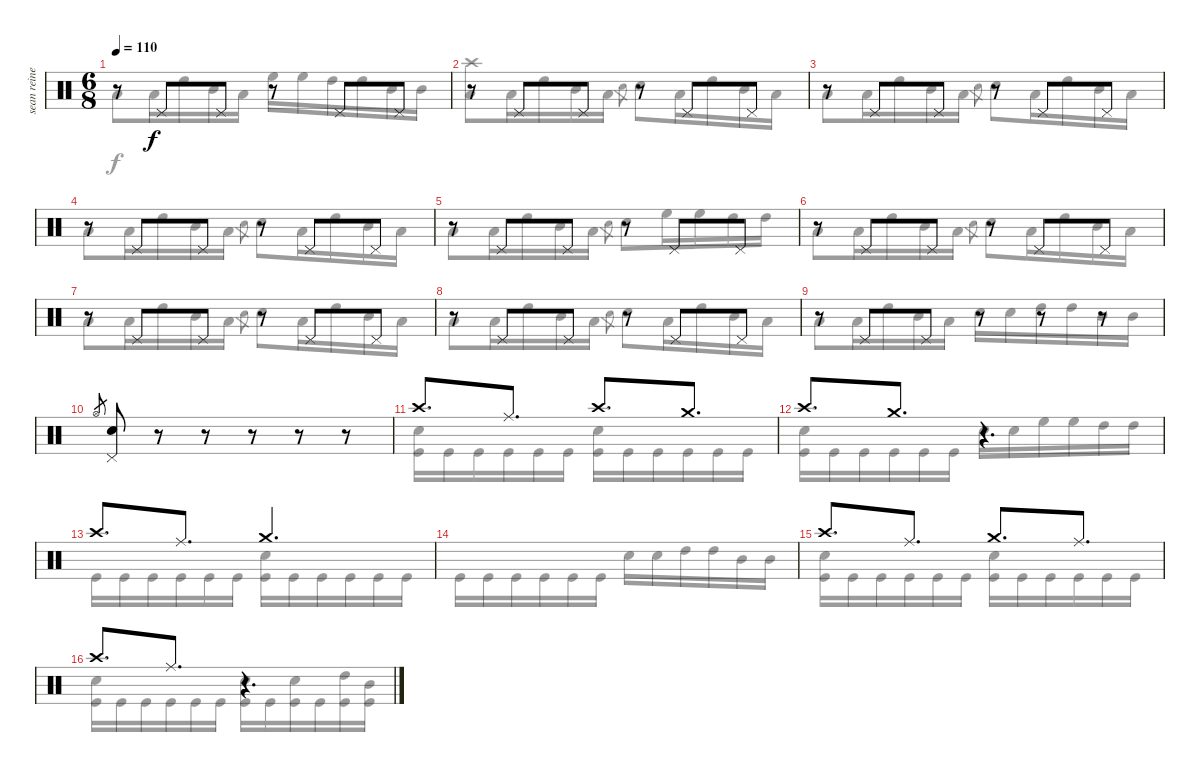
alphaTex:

\track ("sean reinert" "sean reine") {instrument percussion}
\staff {score}
\articulation defaults
\voice
\ts (6 8)
\tempo 110
\clef neutral
\ks c
r.8{dy f} "Pedal Hi-Hat (hit)".8 "Pedal Hi-Hat (hit)".8 r.8 "Pedal Hi-Hat (hit)".8 "Pedal Hi-Hat (hit)".8 |
r.8 "Pedal Hi-Hat (hit)".8 "Pedal Hi-Hat (hit)".8 r.8 "Pedal Hi-Hat (hit)".8 "Pedal Hi-Hat (hit)".8 |
r.8 "Pedal Hi-Hat (hit)".8 "Pedal Hi-Hat (hit)".8 r.8 "Pedal Hi-Hat (hit)".8 "Pedal Hi-Hat (hit)".8 |
r.8 "Pedal Hi-Hat (hit)".8 "Pedal Hi-Hat (hit)".8 r.8 "Pedal Hi-Hat (hit)".8 "Pedal Hi-Hat (hit)".8 |
r.8 "Pedal Hi-Hat (hit)".8 "Pedal Hi-Hat (hit)".8 r.8 "Pedal Hi-Hat (hit)".8 "Pedal Hi-Hat (hit)".8 |
r.8 "Pedal Hi-Hat (hit)".8 "Pedal Hi-Hat (hit)".8 r.8 "Pedal Hi-Hat (hit)".8 "Pedal Hi-Hat (hit)".8 |
r.8 "Pedal Hi-Hat (hit)".8 "Pedal Hi-Hat (hit)".8 r.8 "Pedal Hi-Hat (hit)".8 "Pedal Hi-Hat (hit)".8 |
r.8 "Pedal Hi-Hat (hit)".8 "Pedal Hi-Hat (hit)".8 r.8 "Pedal Hi-Hat (hit)".8 "Pedal Hi-Hat (hit)".8 |
r.8 "Pedal Hi-Hat (hit)".8 "Pedal Hi-Hat (hit)".8 r.8 r.8 r.8 |
"Hi-Hat (open)".8{gr} ("Pedal Hi-Hat (hit)" "Snare (hit) 2").8 r.8 r.8 r.8 r.8 r.8 |
"Crash high (hit)".8{d} "Ride (middle)".8{d} "Crash high (hit)".8{d} "Crash medium (hit)".8{d} |
"Crash high (hit)".8{d} "Crash medium (hit)".8{d} r.4{d} |
"Crash high (hit)".8{d} "Ride (middle)".8{d} "Crash medium (hit)".4{d} |
|
"Crash high (hit)".8{d} "Ride (middle)".8{d} "Crash medium (hit)".8{d} "Ride (middle)".8{d} |
"Crash high (hit)".8{d} "Ride (middle)".8{d} r.4{d}
\voice
\clef neutral
\ottava regular
\simile none
\ks c "Low Tom (hit)".8{dy f} "Low Tom (hit)".16 "High Tom (hit)".16 "Mid Tom (hit)".16 "Low Tom (hit)".16 "High Floor Tom (hit)".16 "High Floor Tom (hit)".16 "High Tom (hit)".16 "High Tom (hit)".16 "Mid Tom (hit)".16 "Mid Tom (hit)".16
|
("Crash high (hit)" "Low Tom (hit)").8 "Low Tom (hit)".16 "High Tom (hit)".16 "Mid Tom (hit)".16 "Low Tom (hit)".16 "Snare (hit) 2".8{gr} "Snare (hit) 2".8 "Low Tom (hit)".16 "High Tom (hit)".16 "Mid Tom (hit)".16 "Low Tom (hit)".16 |
"Low Tom (hit)".8 "Low Tom (hit)".16 "High Tom (hit)".16 "Mid Tom (hit)".16 "Low Tom (hit)".16 "Snare (hit) 2".8{gr} "Snare (hit) 2".8 "Low Tom (hit)".16 "High Tom (hit)".16 "Mid Tom (hit)".16 "Low Tom (hit)".16 |
"Low Tom (hit)".8 "Low Tom (hit)".16 "High Tom (hit)".16 "Mid Tom (hit)".16 "Low Tom (hit)".16 "Snare (hit) 2".8{gr} "Snare (hit) 2".8 "Low Tom (hit)".16 "High Tom (hit)".16 "Mid Tom (hit)".16 "Low Tom (hit)".16 |
"Low Tom (hit)".8 "Low Tom (hit)".16 "High Tom (hit)".16 "Mid Tom (hit)".16 "Low Tom (hit)".16 "Snare (hit) 2".8{gr} "Snare (hit) 2".8 "High Floor Tom (hit)".16 "High Floor Tom (hit)".16 "High Tom (hit)".16 "High Tom (hit)".16 |
"Low Tom (hit)".8 "Low Tom (hit)".16 "High Tom (hit)".16 "Mid Tom (hit)".16 "Low Tom (hit)".16 "Snare (hit) 2".8{gr} "Snare (hit) 2".8 "Low Tom (hit)".16 "High Tom (hit)".16 "Mid Tom (hit)".16 "Low Tom (hit)".16 |
"Low Tom (hit)".8 "Low Tom (hit)".16 "High Tom (hit)".16 "Mid Tom (hit)".16 "Low Tom (hit)".16 "Snare (hit) 2".8{gr} "Snare (hit) 2".8 "Low Tom (hit)".16 "High Tom (hit)".16 "Mid Tom (hit)".16 "Low Tom (hit)".16 |
"Low Tom (hit)".8 "Low Tom (hit)".16 "High Tom (hit)".16 "Mid Tom (hit)".16 "Low Tom (hit)".16 "Snare (hit) 2".8{gr} "Snare (hit) 2".8 "Low Tom (hit)".16 "High Tom (hit)".16 "Mid Tom (hit)".16 "Low Tom (hit)".16 |
"Low Tom (hit)".8 "Low Tom (hit)".16 "High Tom (hit)".16 "Mid Tom (hit)".16 "Low Tom (hit)".16 "Snare (hit) 2".16 "Snare (hit) 2".16 "High Tom (hit)".16 "High Tom (hit)".16 "Mid Tom (hit)".16 "Mid Tom (hit)".16 |
|
("Snare (hit) 2" "Kick (hit)").16 "Kick (hit)".16 "Kick (hit)".16 "Kick (hit)".16 "Kick (hit)".16 "Kick (hit)".16 ("Snare (hit) 2" "Kick (hit)").16 "Kick (hit)".16 "Kick (hit)".16 "Kick (hit)".16 "Kick (hit)".16 "Kick (hit)".16 |
("Snare (hit) 2" "Kick (hit)").16 "Kick (hit)".16 "Kick (hit)".16 "Kick (hit)".16 "Kick (hit)".16 "Kick (hit)".16 "Snare (hit) 2".16 "Snare (hit) 2".16 "High Floor Tom (hit)".16 "High Floor Tom (hit)".16 "High Tom (hit)".16 "High Tom (hit)".16 |
"Kick (hit)".16 "Kick (hit)".16 "Kick (hit)".16 "Kick (hit)".16 "Kick (hit)".16 "Kick (hit)".16 ("Snare (hit) 2" "Kick (hit)").16 "Kick (hit)".16 "Kick (hit)".16 "Kick (hit)".16 "Kick (hit)".16 "Kick (hit)".16 |
"Kick (hit)".16 "Kick (hit)".16 "Kick (hit)".16 "Kick (hit)".16 "Kick (hit)".16 "Kick (hit)".16 "Snare (hit) 2".16 "Snare (hit) 2".16 "High Tom (hit)".16 "High Tom (hit)".16 "Mid Tom (hit)".16 "Mid Tom (hit)".16 |
("Snare (hit) 2" "Kick (hit)").16 "Kick (hit)".16 "Kick (hit)".16 "Kick (hit)".16 "Kick (hit)".16 "Kick (hit)".16 ("Snare (hit) 2" "Kick (hit)").16 "Kick (hit)".16 "Kick (hit)".16 "Kick (hit)".16 "Kick (hit)".16 "Kick (hit)".16 |
("Snare (hit) 2" "Kick (hit)").16 "Kick (hit)".16 "Kick (hit)".16 "Kick (hit)".16 "Kick (hit)".16 "Kick (hit)".16 ("Snare (hit) 2" "Kick (hit)").16 "Kick (hit)".16 ("Snare (hit) 2" "Kick (hit)").16 "Kick (hit)".16 ("High Tom (hit)" "Kick (hit)").16 ("Mid Tom (hit)" "Kick (hit)").16
